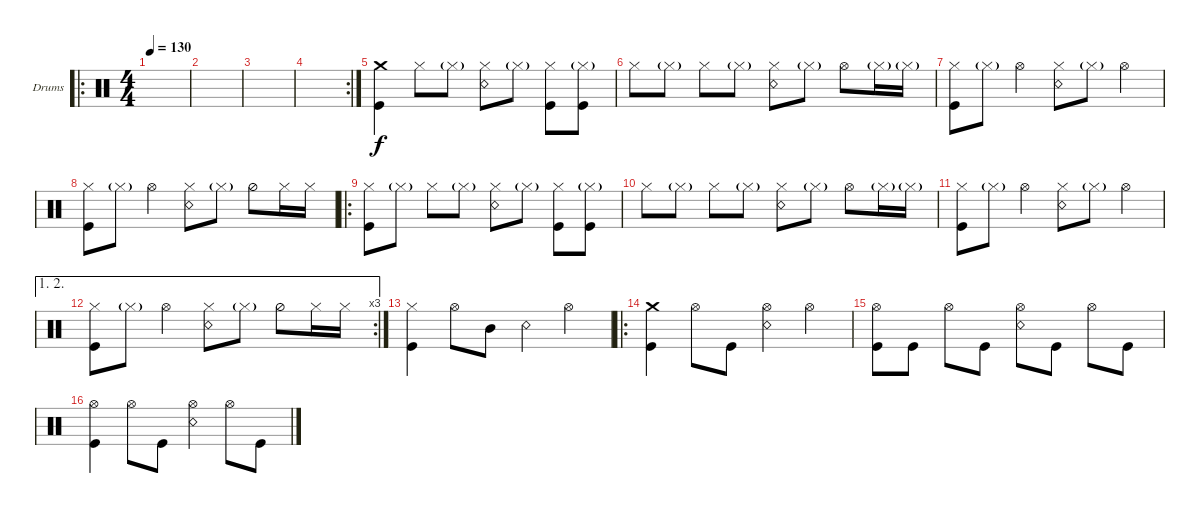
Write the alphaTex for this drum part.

\defaultSystemsLayout 4
\bracketExtendMode groupsimilarinstruments
\firstSystemTrackNameOrientation horizontal
\otherSystemsTrackNameOrientation horizontal
\track ("Drumkit" "Drums") {instrument percussion}
\staff {score}
\articulation defaults
\ro
\ts (4 4)
\tempo 130
\clef neutral
\scale
0.5
\ks c
|
\scale
0.25 |
\scale
0.25 |
\rc 2
\scale
0.333333 |
\scale
0.365079 ("Kick (hit)" "Crash medium (hit)").4 "Hi-Hat (closed)".8 "Hi-Hat (closed)"{g}.8 ("Snare (rim shot)" "Hi-Hat (closed)").8 "Hi-Hat (closed)"{g}.8 ("Hi-Hat (closed)" "Kick (hit)").8 ("Hi-Hat (closed)"{g} "Kick (hit)").8 |
\scale
0.301587 "Hi-Hat (closed)".8 "Hi-Hat (closed)"{g}.8 "Hi-Hat (closed)".8 "Hi-Hat (closed)"{g}.8 ("Hi-Hat (closed)" "Snare (rim shot)").8 "Hi-Hat (closed)"{g}.8 "Hi-Hat (open)".8 "Hi-Hat (closed)"{g}.16 "Hi-Hat (closed)"{g}.16 |
\scale
0.322034 ("Kick (hit)" "Hi-Hat (closed)").8 "Hi-Hat (closed)"{g}.8 "Hi-Hat (open)".4 ("Hi-Hat (closed)" "Snare (rim shot)").8 "Hi-Hat (closed)"{g}.8 "Hi-Hat (open)".4 |
\scale
0.355932 ("Kick (hit)" "Hi-Hat (closed)").8 "Hi-Hat (closed)"{g}.8 "Hi-Hat (open)".4 ("Hi-Hat (closed)" "Snare (rim shot)").8 "Hi-Hat (closed)"{g}.8 "Hi-Hat (half)".8 "Hi-Hat (closed)".16 "Hi-Hat (closed)".16 |
\ro
("Kick (hit)" "Hi-Hat (closed)").8 "Hi-Hat (closed)"{g}.8 "Hi-Hat (closed)".8 "Hi-Hat (closed)"{g}.8 ("Snare (rim shot)" "Hi-Hat (closed)").8 "Hi-Hat (closed)"{g}.8 ("Hi-Hat (closed)" "Kick (hit)").8 ("Hi-Hat (closed)"{g} "Kick (hit)").8 |
"Hi-Hat (closed)".8 "Hi-Hat (closed)"{g}.8 "Hi-Hat (closed)".8 "Hi-Hat (closed)"{g}.8 ("Hi-Hat (closed)" "Snare (rim shot)").8 "Hi-Hat (closed)"{g}.8 "Hi-Hat (open)".8 "Hi-Hat (closed)"{g}.16 "Hi-Hat (closed)"{g}.16 |
("Kick (hit)" "Hi-Hat (closed)").8 "Hi-Hat (closed)"{g}.8 "Hi-Hat (open)".4 ("Hi-Hat (closed)" "Snare (rim shot)").8 "Hi-Hat (closed)"{g}.8 "Hi-Hat (open)".4 |
\ae (1 2)
\rc 3
("Kick (hit)" "Hi-Hat (closed)").8 "Hi-Hat (closed)"{g}.8 "Hi-Hat (open)".4 ("Hi-Hat (closed)" "Snare (rim shot)").8 "Hi-Hat (closed)"{g}.8 "Hi-Hat (half)".8 "Hi-Hat (closed)".16 "Hi-Hat (closed)".16 |
\scale
0.322034 ("Kick (hit)" "Hi-Hat (closed)").4 "Hi-Hat (open)".8 "Mid Tom (hit)".8 "Snare (rim shot)".4 "Hi-Hat (open)".4 |
\ro
\scale
0.377049 ("Kick (hit)" "Crash medium (hit)").4 "Hi-Hat (open)".8 "Kick (hit)".8 ("Snare (rim shot)" "Hi-Hat (open)").4 "Hi-Hat (open)".4 |
\scale
0.311475 ("Kick (hit)" "Hi-Hat (open)").8 "Kick (hit)".8 "Hi-Hat (open)".8 "Kick (hit)".8 ("Snare (rim shot)" "Hi-Hat (open)").8 "Kick (hit)".8 "Hi-Hat (open)".8 "Kick (hit)".8 |
\scale
0.311475 ("Kick (hit)" "Hi-Hat (open)").4 "Hi-Hat (open)".8 "Kick (hit)".8 ("Snare (rim shot)" "Hi-Hat (open)").4 "Hi-Hat (open)".8 "Kick (hit)".8
